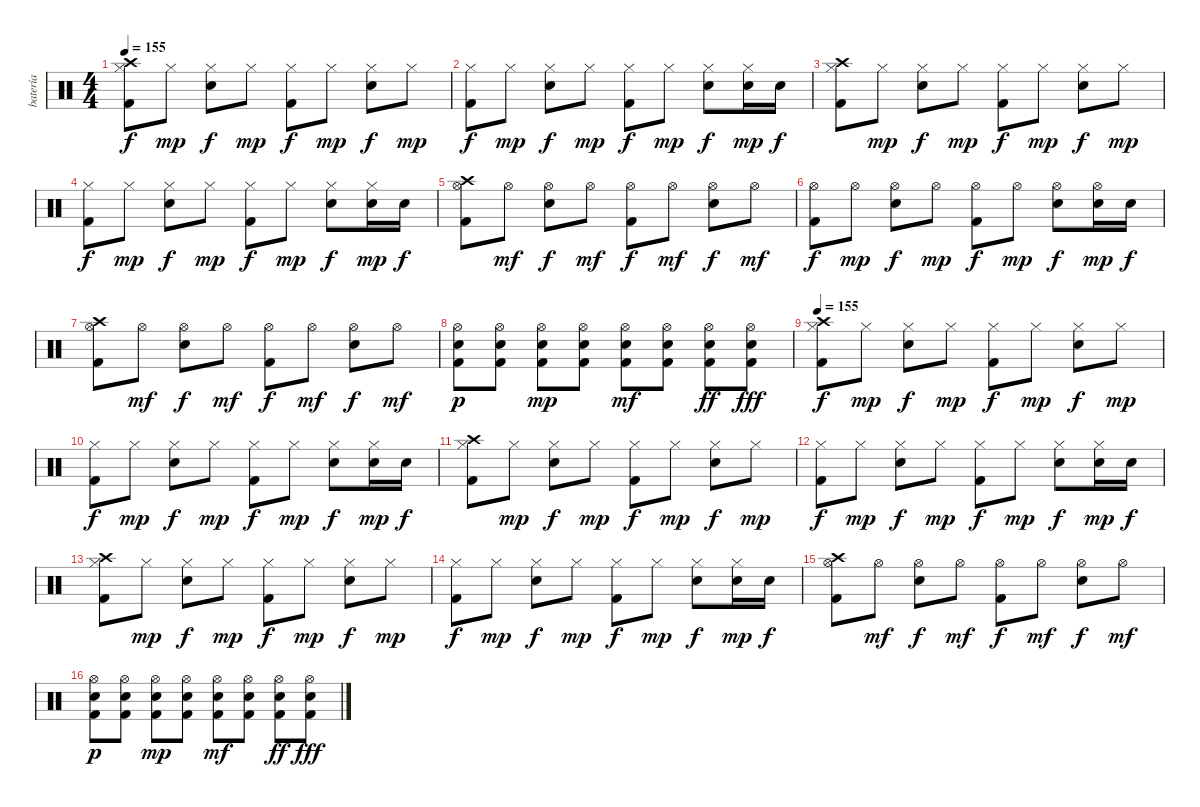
\track ("batería" "batería") {instrument percussion}
\staff {score}
\articulation defaults
\ts (4 4)
\tempo 155
\clef neutral
\ks c
("Crash high (hit)" "Hi-Hat (closed)" "Kick (hit) 2").8{dy f} "Hi-Hat (closed)".8{dy mp} ("Hi-Hat (closed)" "Electric Snare (hit)").8{dy f} "Hi-Hat (closed)".8{dy mp} ("Hi-Hat (closed)" "Kick (hit) 2").8{dy f} "Hi-Hat (closed)".8{dy mp} ("Hi-Hat (closed)" "Electric Snare (hit)").8{dy f} "Hi-Hat (closed)".8{dy mp} |
("Hi-Hat (closed)" "Kick (hit) 2").8{dy f} "Hi-Hat (closed)".8{dy mp} ("Hi-Hat (closed)" "Electric Snare (hit)").8{dy f} "Hi-Hat (closed)".8{dy mp} ("Hi-Hat (closed)" "Kick (hit) 2").8{dy f} "Hi-Hat (closed)".8{dy mp} ("Hi-Hat (closed)" "Electric Snare (hit)").8{dy f} ("Hi-Hat (closed)" "Electric Snare (hit)").16{dy mp} "Electric Snare (hit)".16{dy f} |
("Crash high (hit)" "Hi-Hat (closed)" "Kick (hit) 2").8 "Hi-Hat (closed)".8{dy mp} ("Hi-Hat (closed)" "Electric Snare (hit)").8{dy f} "Hi-Hat (closed)".8{dy mp} ("Hi-Hat (closed)" "Kick (hit) 2").8{dy f} "Hi-Hat (closed)".8{dy mp} ("Hi-Hat (closed)" "Electric Snare (hit)").8{dy f} "Hi-Hat (closed)".8{dy mp} |
("Hi-Hat (closed)" "Kick (hit) 2").8{dy f} "Hi-Hat (closed)".8{dy mp} ("Hi-Hat (closed)" "Electric Snare (hit)").8{dy f} "Hi-Hat (closed)".8{dy mp} ("Hi-Hat (closed)" "Kick (hit) 2").8{dy f} "Hi-Hat (closed)".8{dy mp} ("Hi-Hat (closed)" "Electric Snare (hit)").8{dy f} ("Hi-Hat (closed)" "Electric Snare (hit)").16{dy mp} "Electric Snare (hit)".16{dy f} |
("Crash high (hit)" "Hi-Hat (open)" "Kick (hit) 2").8 "Hi-Hat (open)".8{dy mf} ("Hi-Hat (open)" "Electric Snare (hit)").8{dy f} "Hi-Hat (open)".8{dy mf} ("Hi-Hat (open)" "Kick (hit) 2").8{dy f} "Hi-Hat (open)".8{dy mf} ("Hi-Hat (open)" "Electric Snare (hit)").8{dy f} "Hi-Hat (open)".8{dy mf} |
("Hi-Hat (open)" "Kick (hit) 2").8{dy f} "Hi-Hat (open)".8{dy mp} ("Hi-Hat (open)" "Electric Snare (hit)").8{dy f} "Hi-Hat (open)".8{dy mp} ("Hi-Hat (open)" "Kick (hit) 2").8{dy f} "Hi-Hat (open)".8{dy mp} ("Hi-Hat (open)" "Electric Snare (hit)").8{dy f} ("Hi-Hat (open)" "Electric Snare (hit)").16{dy mp} "Electric Snare (hit)".16{dy f} |
("Crash high (hit)" "Hi-Hat (open)" "Kick (hit) 2").8 "Hi-Hat (open)".8{dy mf} ("Hi-Hat (open)" "Electric Snare (hit)").8{dy f} "Hi-Hat (open)".8{dy mf} ("Hi-Hat (open)" "Kick (hit) 2").8{dy f} "Hi-Hat (open)".8{dy mf} ("Hi-Hat (open)" "Electric Snare (hit)").8{dy f} "Hi-Hat (open)".8{dy mf} |
("Hi-Hat (open)" "Electric Snare (hit)" "Kick (hit) 2").8{dy p} ("Hi-Hat (open)" "Electric Snare (hit)" "Kick (hit) 2").8 ("Hi-Hat (open)" "Electric Snare (hit)" "Kick (hit) 2").8{dy mp} ("Hi-Hat (open)" "Electric Snare (hit)" "Kick (hit) 2").8 ("Hi-Hat (open)" "Electric Snare (hit)" "Kick (hit) 2").8{dy mf} ("Hi-Hat (open)" "Electric Snare (hit)" "Kick (hit) 2").8 ("Hi-Hat (open)" "Electric Snare (hit)" "Kick (hit) 2").8{dy ff} ("Hi-Hat (open)" "Electric Snare (hit)" "Kick (hit) 2").8{dy fff} |
\tempo 155
("Crash high (hit)" "Hi-Hat (closed)" "Kick (hit) 2").8{dy f} "Hi-Hat (closed)".8{dy mp} ("Hi-Hat (closed)" "Electric Snare (hit)").8{dy f} "Hi-Hat (closed)".8{dy mp} ("Hi-Hat (closed)" "Kick (hit) 2").8{dy f} "Hi-Hat (closed)".8{dy mp} ("Hi-Hat (closed)" "Electric Snare (hit)").8{dy f} "Hi-Hat (closed)".8{dy mp} |
("Hi-Hat (closed)" "Kick (hit) 2").8{dy f} "Hi-Hat (closed)".8{dy mp} ("Hi-Hat (closed)" "Electric Snare (hit)").8{dy f} "Hi-Hat (closed)".8{dy mp} ("Hi-Hat (closed)" "Kick (hit) 2").8{dy f} "Hi-Hat (closed)".8{dy mp} ("Hi-Hat (closed)" "Electric Snare (hit)").8{dy f} ("Hi-Hat (closed)" "Electric Snare (hit)").16{dy mp} "Electric Snare (hit)".16{dy f} |
("Crash high (hit)" "Hi-Hat (closed)" "Kick (hit) 2").8 "Hi-Hat (closed)".8{dy mp} ("Hi-Hat (closed)" "Electric Snare (hit)").8{dy f} "Hi-Hat (closed)".8{dy mp} ("Hi-Hat (closed)" "Kick (hit) 2").8{dy f} "Hi-Hat (closed)".8{dy mp} ("Hi-Hat (closed)" "Electric Snare (hit)").8{dy f} "Hi-Hat (closed)".8{dy mp} |
("Hi-Hat (closed)" "Kick (hit) 2").8{dy f} "Hi-Hat (closed)".8{dy mp} ("Hi-Hat (closed)" "Electric Snare (hit)").8{dy f} "Hi-Hat (closed)".8{dy mp} ("Hi-Hat (closed)" "Kick (hit) 2").8{dy f} "Hi-Hat (closed)".8{dy mp} ("Hi-Hat (closed)" "Electric Snare (hit)").8{dy f} ("Hi-Hat (closed)" "Electric Snare (hit)").16{dy mp} "Electric Snare (hit)".16{dy f} |
("Crash high (hit)" "Hi-Hat (closed)" "Kick (hit) 2").8 "Hi-Hat (closed)".8{dy mp} ("Hi-Hat (closed)" "Electric Snare (hit)").8{dy f} "Hi-Hat (closed)".8{dy mp} ("Hi-Hat (closed)" "Kick (hit) 2").8{dy f} "Hi-Hat (closed)".8{dy mp} ("Hi-Hat (closed)" "Electric Snare (hit)").8{dy f} "Hi-Hat (closed)".8{dy mp} |
("Hi-Hat (closed)" "Kick (hit) 2").8{dy f} "Hi-Hat (closed)".8{dy mp} ("Hi-Hat (closed)" "Electric Snare (hit)").8{dy f} "Hi-Hat (closed)".8{dy mp} ("Hi-Hat (closed)" "Kick (hit) 2").8{dy f} "Hi-Hat (closed)".8{dy mp} ("Hi-Hat (closed)" "Electric Snare (hit)").8{dy f} ("Hi-Hat (closed)" "Electric Snare (hit)").16{dy mp} "Electric Snare (hit)".16{dy f} |
("Crash high (hit)" "Hi-Hat (open)" "Kick (hit) 2").8 "Hi-Hat (open)".8{dy mf} ("Hi-Hat (open)" "Electric Snare (hit)").8{dy f} "Hi-Hat (open)".8{dy mf} ("Hi-Hat (open)" "Kick (hit) 2").8{dy f} "Hi-Hat (open)".8{dy mf} ("Hi-Hat (open)" "Electric Snare (hit)").8{dy f} "Hi-Hat (open)".8{dy mf} |
("Hi-Hat (open)" "Electric Snare (hit)" "Kick (hit) 2").8{dy p} ("Hi-Hat (open)" "Electric Snare (hit)" "Kick (hit) 2").8 ("Hi-Hat (open)" "Electric Snare (hit)" "Kick (hit) 2").8{dy mp} ("Hi-Hat (open)" "Electric Snare (hit)" "Kick (hit) 2").8 ("Hi-Hat (open)" "Electric Snare (hit)" "Kick (hit) 2").8{dy mf} ("Hi-Hat (open)" "Electric Snare (hit)" "Kick (hit) 2").8 ("Hi-Hat (open)" "Electric Snare (hit)" "Kick (hit) 2").8{dy ff} ("Hi-Hat (open)" "Electric Snare (hit)" "Kick (hit) 2").8{dy fff}
